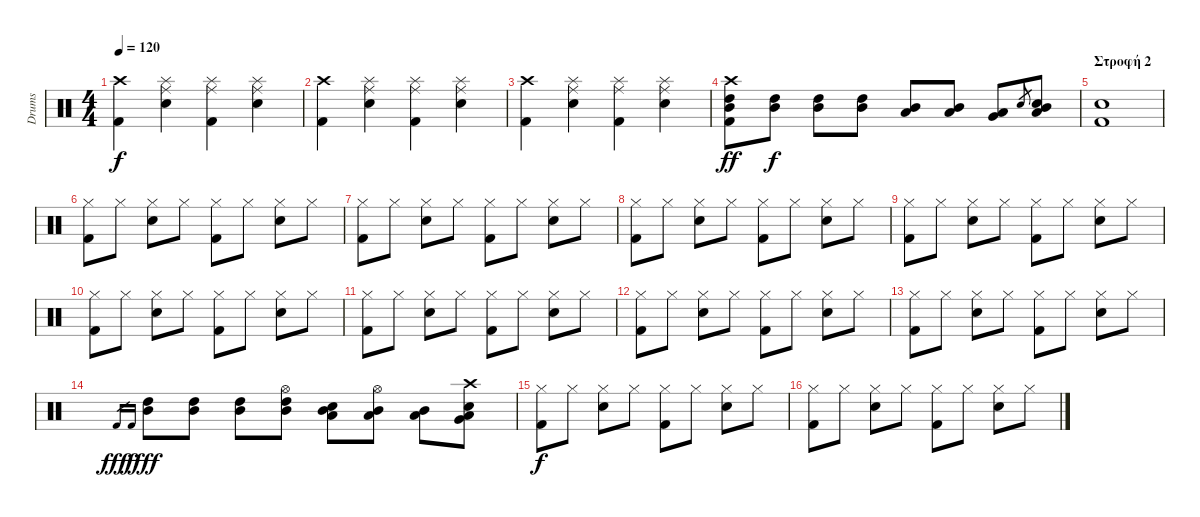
\track ("Drums" "Drums") {instrument percussion}
\staff {score}
\articulation defaults
\ts (4 4)
\tempo 120
\clef neutral
\ks c
("Crash high (hit)" "Kick (hit) 2").4{dy f} ("Ride (middle)" "Splash (hit)" "Electric Snare (hit)").4 ("Ride (middle)" "Splash (hit)" "Kick (hit) 2").4 ("Ride (middle)" "Splash (hit)" "Electric Snare (hit)").4 |
("Crash high (hit)" "Kick (hit) 2").4 ("Ride (middle)" "Splash (hit)" "Electric Snare (hit)").4 ("Ride (middle)" "Splash (hit)" "Kick (hit) 2").4 ("Ride (middle)" "Splash (hit)" "Electric Snare (hit)").4 |
("Crash high (hit)" "Kick (hit) 2").4 ("Ride (middle)" "Splash (hit)" "Electric Snare (hit)").4 ("Ride (middle)" "Splash (hit)" "Kick (hit) 2").4 ("Ride (middle)" "Splash (hit)" "Electric Snare (hit)").4 |
("Mid Tom (hit)" "High Tom (hit)" "Crash high (hit)" "Kick (hit) 2").8{dy ff} ("Mid Tom (hit)" "High Tom (hit)").8{dy f} ("Mid Tom (hit)" "High Tom (hit)").8 ("Mid Tom (hit)" "High Tom (hit)").8 ("Low Tom (hit)" "Mid Tom (hit)").8 ("Low Tom (hit)" "Mid Tom (hit)").8 ("Very Low Tom (hit)" "Low Tom (hit)").8 "Electric Snare (hit)".8{gr} ("Low Tom (hit)" "Mid Tom (hit)" "Electric Snare (hit)").8 |
\section ("" "Στροφή 2")
("Electric Snare (hit)" "Kick (hit) 2").1 |
("Hi-Hat (closed)" "Kick (hit) 2").8 "Hi-Hat (closed)".8 ("Hi-Hat (closed)" "Electric Snare (hit)").8 "Hi-Hat (closed)".8 ("Hi-Hat (closed)" "Kick (hit) 2").8 "Hi-Hat (closed)".8 ("Hi-Hat (closed)" "Electric Snare (hit)").8 "Hi-Hat (closed)".8 |
("Hi-Hat (closed)" "Kick (hit) 2").8 "Hi-Hat (closed)".8 ("Hi-Hat (closed)" "Electric Snare (hit)").8 "Hi-Hat (closed)".8 ("Hi-Hat (closed)" "Kick (hit) 2").8 "Hi-Hat (closed)".8 ("Hi-Hat (closed)" "Electric Snare (hit)").8 "Hi-Hat (closed)".8 |
("Hi-Hat (closed)" "Kick (hit) 2").8 "Hi-Hat (closed)".8 ("Hi-Hat (closed)" "Electric Snare (hit)").8 "Hi-Hat (closed)".8 ("Hi-Hat (closed)" "Kick (hit) 2").8 "Hi-Hat (closed)".8 ("Hi-Hat (closed)" "Electric Snare (hit)").8 "Hi-Hat (closed)".8 |
("Hi-Hat (closed)" "Kick (hit) 2").8 "Hi-Hat (closed)".8 ("Hi-Hat (closed)" "Electric Snare (hit)").8 "Hi-Hat (closed)".8 ("Hi-Hat (closed)" "Kick (hit) 2").8 "Hi-Hat (closed)".8 ("Hi-Hat (closed)" "Electric Snare (hit)").8 "Hi-Hat (closed)".8 |
("Hi-Hat (closed)" "Kick (hit) 2").8 "Hi-Hat (closed)".8 ("Hi-Hat (closed)" "Electric Snare (hit)").8 "Hi-Hat (closed)".8 ("Hi-Hat (closed)" "Kick (hit) 2").8 "Hi-Hat (closed)".8 ("Hi-Hat (closed)" "Electric Snare (hit)").8 "Hi-Hat (closed)".8 |
("Hi-Hat (closed)" "Kick (hit) 2").8 "Hi-Hat (closed)".8 ("Hi-Hat (closed)" "Electric Snare (hit)").8 "Hi-Hat (closed)".8 ("Hi-Hat (closed)" "Kick (hit) 2").8 "Hi-Hat (closed)".8 ("Hi-Hat (closed)" "Electric Snare (hit)").8 "Hi-Hat (closed)".8 |
("Hi-Hat (closed)" "Kick (hit) 2").8 "Hi-Hat (closed)".8 ("Hi-Hat (closed)" "Electric Snare (hit)").8 "Hi-Hat (closed)".8 ("Hi-Hat (closed)" "Kick (hit) 2").8 "Hi-Hat (closed)".8 ("Hi-Hat (closed)" "Electric Snare (hit)").8 "Hi-Hat (closed)".8 |
("Hi-Hat (closed)" "Kick (hit) 2").8 "Hi-Hat (closed)".8 ("Hi-Hat (closed)" "Electric Snare (hit)").8 "Hi-Hat (closed)".8 ("Hi-Hat (closed)" "Kick (hit) 2").8 "Hi-Hat (closed)".8 ("Hi-Hat (closed)" "Electric Snare (hit)").8 "Hi-Hat (closed)".8 |
"Kick (hit) 2".16{gr dy fff} "Kick (hit) 2".16{gr dy f} ("High Tom (hit)" "Mid Tom (hit)").8{dy fff} ("High Tom (hit)" "Mid Tom (hit)").8 ("High Tom (hit)" "Mid Tom (hit)").8 ("Hi-Hat (open)" "High Tom (hit)" "Mid Tom (hit)").8 ("Mid Tom (hit)" "Low Tom (hit)" "Electric Snare (hit)").8 ("Hi-Hat (open)" "Mid Tom (hit)" "Low Tom (hit)").8 ("Mid Tom (hit)" "Low Tom (hit)").8 ("Crash high (hit)" "Low Tom (hit)" "Very Low Tom (hit)" "Electric Snare (hit)").8 |
("Hi-Hat (closed)" "Kick (hit) 2").8{dy f} "Hi-Hat (closed)".8 ("Hi-Hat (closed)" "Electric Snare (hit)").8 "Hi-Hat (closed)".8 ("Hi-Hat (closed)" "Kick (hit) 2").8 "Hi-Hat (closed)".8 ("Hi-Hat (closed)" "Electric Snare (hit)").8 "Hi-Hat (closed)".8 |
("Hi-Hat (closed)" "Kick (hit) 2").8 "Hi-Hat (closed)".8 ("Hi-Hat (closed)" "Electric Snare (hit)").8 "Hi-Hat (closed)".8 ("Hi-Hat (closed)" "Kick (hit) 2").8 "Hi-Hat (closed)".8 ("Hi-Hat (closed)" "Electric Snare (hit)").8 "Hi-Hat (closed)".8
